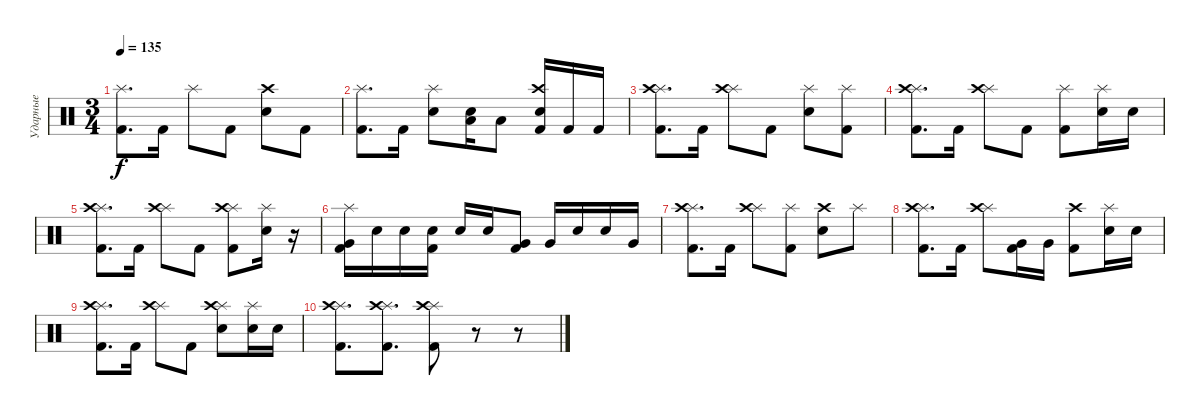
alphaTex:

\track ("Ударные" "Ударные") {instrument percussion}
\staff {score}
\articulation defaults
\ts (3 4)
\tempo 135
\clef neutral
\ks c
("Splash (hit)" "Kick (hit) 2").8{d dy f} "Kick (hit) 2".16 "Splash (hit)".8 "Kick (hit) 2".8 ("Crash high (hit)" "Electric Snare (hit)").8 "Kick (hit) 2".8 |
("Splash (hit)" "Kick (hit) 2").8{d} "Kick (hit) 2".16 ("Splash (hit)" "Electric Snare (hit)").8 ("Electric Snare (hit)" "Low Floor Tom (hit)").16 "Low Floor Tom (hit)".8 ("Crash high (hit)" "Electric Snare (hit)" "Kick (hit) 2").16 "Kick (hit) 2".16 "Kick (hit) 2".16 |
("Splash (hit)" "Crash high (hit)" "Kick (hit) 2").8{d} "Kick (hit) 2".16 ("Splash (hit)" "Crash high (hit)").8 "Kick (hit) 2".8 ("Splash (hit)" "Electric Snare (hit)").8 ("Splash (hit)" "Kick (hit) 2").8 |
("Splash (hit)" "Crash high (hit)" "Kick (hit) 2").8{d} "Kick (hit) 2".16 ("Splash (hit)" "Crash high (hit)").8 "Kick (hit) 2".8 ("Splash (hit)" "Kick (hit) 2").8 ("Splash (hit)" "Electric Snare (hit)").16 "Electric Snare (hit)".16 |
("Splash (hit)" "Crash high (hit)" "Kick (hit) 2").8{d} "Kick (hit) 2".16 ("Splash (hit)" "Crash high (hit)").8 "Kick (hit) 2".8 ("Splash (hit)" "Crash high (hit)" "Kick (hit) 2").8 ("Splash (hit)" "Electric Snare (hit)").16 r.16 |
("Splash (hit)" "Very Low Tom (hit)" "Kick (hit) 2").16 "Electric Snare (hit)".16 "Electric Snare (hit)".16 ("Electric Snare (hit)" "Kick (hit) 2").16 "Electric Snare (hit)".16 "Electric Snare (hit)".16 ("Very Low Tom (hit)" "Kick (hit) 2").8 "Very Low Tom (hit)".16 "Electric Snare (hit)".16 "Electric Snare (hit)".16 "Very Low Tom (hit)".16 |
("Splash (hit)" "Crash high (hit)" "Kick (hit) 2").8{d} "Kick (hit) 2".16 ("Splash (hit)" "Crash high (hit)").8 ("Splash (hit)" "Kick (hit) 2").8 ("Crash high (hit)" "Electric Snare (hit)").8 "Splash (hit)".8 |
("Splash (hit)" "Crash high (hit)" "Kick (hit) 2").8{d} "Kick (hit) 2".16 ("Splash (hit)" "Crash high (hit)").8 ("Very Low Tom (hit)" "Kick (hit) 2").16 "Very Low Tom (hit)".16 ("Crash high (hit)" "Kick (hit) 2").8 ("Splash (hit)" "Electric Snare (hit)").16 "Electric Snare (hit)".16 |
("Splash (hit)" "Crash high (hit)" "Kick (hit) 2").8{d} "Kick (hit) 2".16 ("Splash (hit)" "Crash high (hit)").8 "Kick (hit) 2".8 ("Splash (hit)" "Crash high (hit)" "Electric Snare (hit)").8 ("Splash (hit)" "Electric Snare (hit)").16 "Electric Snare (hit)".16 |
("Splash (hit)" "Crash high (hit)" "Kick (hit) 2").8{d} ("Splash (hit)" "Crash high (hit)" "Kick (hit) 2").8{d} ("Splash (hit)" "Crash high (hit)" "Kick (hit) 2").8 r.8 r.8
